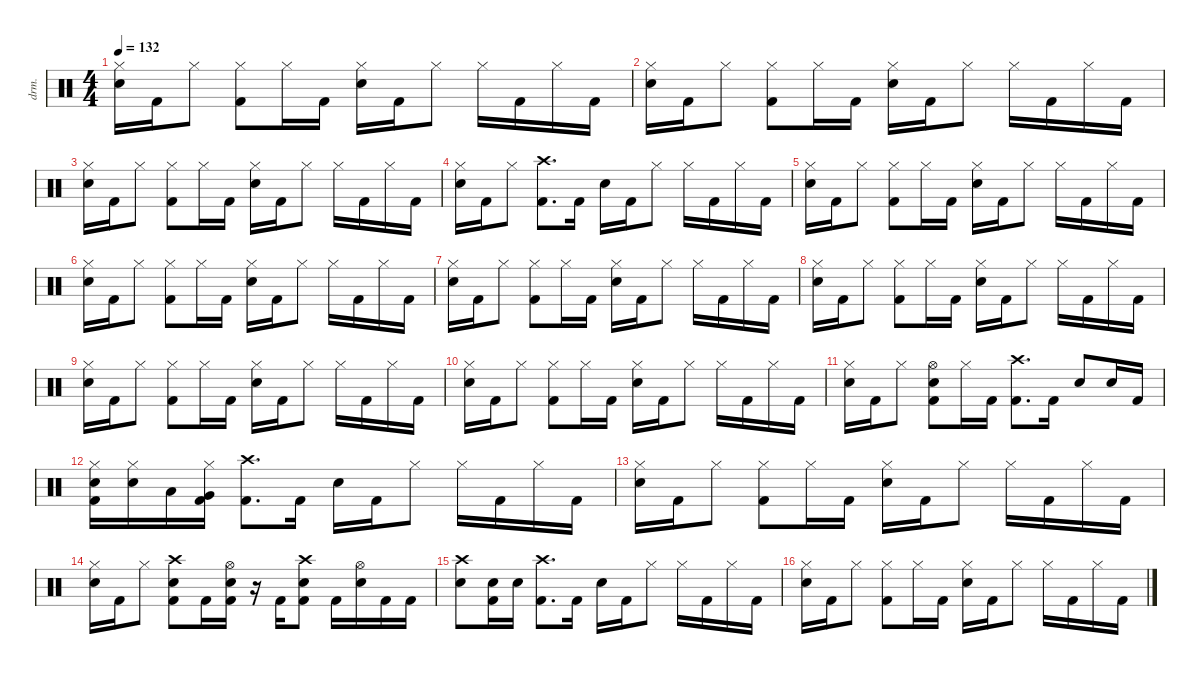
\defaultSystemsLayout 4
\hideDynamics
\bracketExtendMode nobrackets
\track ("drums" "drm.") {instrument percussion}
\staff {score}
\articulation defaults
\ts (4 4)
\tempo 132
\clef neutral
\ks c
("Snare (hit) 2" "Hi-Hat (closed)").16{dy fff} "Kick (hit) 2".16 "Hi-Hat (closed)".8 ("Kick (hit) 2" "Hi-Hat (closed)").8 "Hi-Hat (closed)".16 "Kick (hit) 2".16 ("Snare (hit) 2" "Hi-Hat (closed)").16 "Kick (hit) 2".16 "Hi-Hat (closed)".8 "Hi-Hat (closed)".16 "Kick (hit) 2".16 "Hi-Hat (closed)".16 "Kick (hit) 2".16 |
("Snare (hit) 2" "Hi-Hat (closed)").16 "Kick (hit) 2".16 "Hi-Hat (closed)".8 ("Kick (hit) 2" "Hi-Hat (closed)").8 "Hi-Hat (closed)".16 "Kick (hit) 2".16 ("Snare (hit) 2" "Hi-Hat (closed)").16 "Kick (hit) 2".16 "Hi-Hat (closed)".8 "Hi-Hat (closed)".16 "Kick (hit) 2".16 "Hi-Hat (closed)".16 "Kick (hit) 2".16 |
("Snare (hit) 2" "Hi-Hat (closed)").16 "Kick (hit) 2".16 "Hi-Hat (closed)".8 ("Kick (hit) 2" "Hi-Hat (closed)").8 "Hi-Hat (closed)".16 "Kick (hit) 2".16 ("Snare (hit) 2" "Hi-Hat (closed)").16 "Kick (hit) 2".16 "Hi-Hat (closed)".8 "Hi-Hat (closed)".16 "Kick (hit) 2".16 "Hi-Hat (closed)".16 "Kick (hit) 2".16 |
("Snare (hit) 2" "Hi-Hat (closed)").16 "Kick (hit) 2".16 "Hi-Hat (closed)".8 ("Kick (hit) 2" "Crash high (hit)").8{d} "Kick (hit) 2".16 "Snare (hit) 2".16 "Kick (hit) 2".16 "Hi-Hat (closed)".8 "Hi-Hat (closed)".16 "Kick (hit) 2".16 "Hi-Hat (closed)".16 "Kick (hit) 2".16 |
("Snare (hit) 2" "Hi-Hat (closed)").16 "Kick (hit) 2".16 "Hi-Hat (closed)".8 ("Kick (hit) 2" "Hi-Hat (closed)").8 "Hi-Hat (closed)".16 "Kick (hit) 2".16 ("Snare (hit) 2" "Hi-Hat (closed)").16 "Kick (hit) 2".16 "Hi-Hat (closed)".8 "Hi-Hat (closed)".16 "Kick (hit) 2".16 "Hi-Hat (closed)".16 "Kick (hit) 2".16 |
("Snare (hit) 2" "Hi-Hat (closed)").16 "Kick (hit) 2".16 "Hi-Hat (closed)".8 ("Kick (hit) 2" "Hi-Hat (closed)").8 "Hi-Hat (closed)".16 "Kick (hit) 2".16 ("Snare (hit) 2" "Hi-Hat (closed)").16 "Kick (hit) 2".16 "Hi-Hat (closed)".8 "Hi-Hat (closed)".16 "Kick (hit) 2".16 "Hi-Hat (closed)".16 "Kick (hit) 2".16 |
("Snare (hit) 2" "Hi-Hat (closed)").16 "Kick (hit) 2".16 "Hi-Hat (closed)".8 ("Kick (hit) 2" "Hi-Hat (closed)").8 "Hi-Hat (closed)".16 "Kick (hit) 2".16 ("Snare (hit) 2" "Hi-Hat (closed)").16 "Kick (hit) 2".16 "Hi-Hat (closed)".8 "Hi-Hat (closed)".16 "Kick (hit) 2".16 "Hi-Hat (closed)".16 "Kick (hit) 2".16 |
("Snare (hit) 2" "Hi-Hat (closed)").16 "Kick (hit) 2".16 "Hi-Hat (closed)".8 ("Kick (hit) 2" "Hi-Hat (closed)").8 "Hi-Hat (closed)".16 "Kick (hit) 2".16 ("Snare (hit) 2" "Hi-Hat (closed)").16 "Kick (hit) 2".16 "Hi-Hat (closed)".8 "Hi-Hat (closed)".16 "Kick (hit) 2".16 "Hi-Hat (closed)".16 "Kick (hit) 2".16 |
("Snare (hit) 2" "Hi-Hat (closed)").16 "Kick (hit) 2".16 "Hi-Hat (closed)".8 ("Kick (hit) 2" "Hi-Hat (closed)").8 "Hi-Hat (closed)".16 "Kick (hit) 2".16 ("Snare (hit) 2" "Hi-Hat (closed)").16 "Kick (hit) 2".16 "Hi-Hat (closed)".8 "Hi-Hat (closed)".16 "Kick (hit) 2".16 "Hi-Hat (closed)".16 "Kick (hit) 2".16 |
("Snare (hit) 2" "Hi-Hat (closed)").16 "Kick (hit) 2".16 "Hi-Hat (closed)".8 ("Kick (hit) 2" "Hi-Hat (closed)").8 "Hi-Hat (closed)".16 "Kick (hit) 2".16 ("Snare (hit) 2" "Hi-Hat (closed)").16 "Kick (hit) 2".16 "Hi-Hat (closed)".8 "Hi-Hat (closed)".16 "Kick (hit) 2".16 "Hi-Hat (closed)".16 "Kick (hit) 2".16 |
("Snare (hit) 2" "Hi-Hat (closed)").16 "Kick (hit) 2".16 "Hi-Hat (closed)".8 ("Kick (hit) 2" "Snare (hit) 2" "Hi-Hat (open)").8 "Hi-Hat (closed)".16 "Kick (hit) 2".16 ("Kick (hit) 2" "Crash high (hit)").8{d} "Kick (hit) 2".16 "Snare (hit) 2".8 "Snare (hit) 2".16 "Kick (hit) 2".16 |
("Kick (hit) 2" "Snare (hit) 2" "Hi-Hat (closed)").16 ("Snare (hit) 2" "Hi-Hat (closed)").16 "Low Tom (hit)".16 ("Kick (hit) 2" "Very Low Tom (hit)" "Hi-Hat (closed)").16 ("Kick (hit) 2" "Crash high (hit)").8{d} "Kick (hit) 2".16 "Snare (hit) 2".16 "Kick (hit) 2".16 "Hi-Hat (closed)".8 "Hi-Hat (closed)".16 "Kick (hit) 2".16 "Hi-Hat (closed)".16 "Kick (hit) 2".16 |
("Snare (hit) 2" "Hi-Hat (closed)").16 "Kick (hit) 2".16 "Hi-Hat (closed)".8 ("Kick (hit) 2" "Hi-Hat (closed)").8 "Hi-Hat (closed)".16 "Kick (hit) 2".16 ("Snare (hit) 2" "Hi-Hat (closed)").16 "Kick (hit) 2".16 "Hi-Hat (closed)".8 "Hi-Hat (closed)".16 "Kick (hit) 2".16 "Hi-Hat (closed)".16 "Kick (hit) 2".16 |
("Snare (hit) 2" "Hi-Hat (closed)").16 "Kick (hit) 2".16 "Hi-Hat (closed)".8 ("Kick (hit) 2" "Snare (hit) 2" "Crash high (hit)").8 "Kick (hit) 2".16 ("Kick (hit) 2" "Snare (hit) 2" "Hi-Hat (open)").16 r.16 "Kick (hit) 2".16 ("Kick (hit) 2" "Snare (hit) 2" "Crash high (hit)").8 "Kick (hit) 2".16 ("Snare (hit) 2" "Hi-Hat (open)").16 "Kick (hit) 2".16 "Kick (hit) 2".16 |
("Snare (hit) 2" "Crash high (hit)").8 ("Kick (hit) 2" "Snare (hit) 2").16 "Snare (hit) 2".16 ("Kick (hit) 2" "Crash high (hit)").8{d} "Kick (hit) 2".16 "Snare (hit) 2".16 "Kick (hit) 2".16 "Hi-Hat (closed)".8 "Hi-Hat (closed)".16 "Kick (hit) 2".16 "Hi-Hat (closed)".16 "Kick (hit) 2".16 |
("Snare (hit) 2" "Hi-Hat (closed)").16 "Kick (hit) 2".16 "Hi-Hat (closed)".8 ("Kick (hit) 2" "Hi-Hat (closed)").8 "Hi-Hat (closed)".16 "Kick (hit) 2".16 ("Snare (hit) 2" "Hi-Hat (closed)").16 "Kick (hit) 2".16 "Hi-Hat (closed)".8 "Hi-Hat (closed)".16 "Kick (hit) 2".16 "Hi-Hat (closed)".16 "Kick (hit) 2".16
